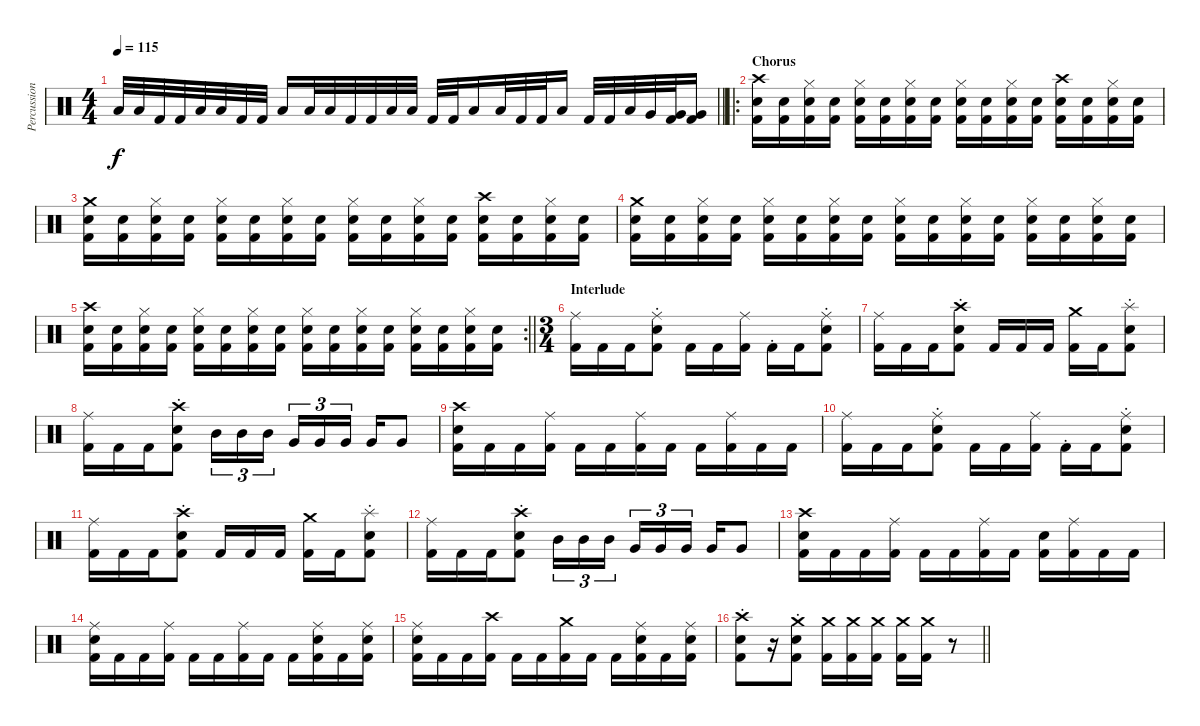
\track ("Percussion" "Percussion") {instrument percussion}
\staff {score}
\articulation defaults
\ts (4 4)
\tempo 115
\clef neutral
\barLineRight lightlight
\ks c "Low Tom (hit)".32{dy f} "Low Tom (hit)".32 "Kick (hit) 2".32 "Kick (hit) 2".32 "Low Tom (hit)".32 "Low Tom (hit)".32 "Kick (hit) 2".32 "Kick (hit) 2".32 "Low Tom (hit)".16 "Low Tom (hit)".32 "Low Tom (hit)".32 "Kick (hit) 2".32 "Kick (hit) 2".32 "Low Tom (hit)".32 "Low Tom (hit)".32 "Kick (hit) 2".32 "Kick (hit) 2".32 "Low Tom (hit)".16 "Low Tom (hit)".32 "Kick (hit) 2".32 "Kick (hit) 2".32 "Low Tom (hit)".16 "Kick (hit) 2".32 "Kick (hit) 2".32 "Low Tom (hit)".32 "Very Low Tom (hit)".32
("Very Low Tom (hit)" "Kick (hit) 2").32 ("Very Low Tom (hit)" "Kick (hit) 2").16 |
\ro
\section ("" "Chorus")
("Crash high (hit)" "Snare (hit) 2" "Kick (hit) 2").16 ("Snare (hit) 2" "Kick (hit) 2").16 ("Hi-Hat (closed)" "Snare (hit) 2" "Kick (hit) 2").16 ("Snare (hit) 2" "Kick (hit) 2").16 ("Hi-Hat (closed)" "Snare (hit) 2" "Kick (hit) 2").16 ("Snare (hit) 2" "Kick (hit) 2").16 ("Hi-Hat (closed)" "Snare (hit) 2" "Kick (hit) 2").16 ("Snare (hit) 2" "Kick (hit) 2").16 ("Hi-Hat (closed)" "Snare (hit) 2" "Kick (hit) 2").16 ("Snare (hit) 2" "Kick (hit) 2").16 ("Hi-Hat (closed)" "Snare (hit) 2" "Kick (hit) 2").16 ("Snare (hit) 2" "Kick (hit) 2").16 ("Crash high (hit)" "Snare (hit) 2" "Kick (hit) 2").16 ("Snare (hit) 2" "Kick (hit) 2").16 ("Hi-Hat (closed)" "Snare (hit) 2" "Kick (hit) 2").16 ("Snare (hit) 2" "Kick (hit) 2").16 |
("Crash medium (hit)" "Snare (hit) 2" "Kick (hit) 2").16 ("Snare (hit) 2" "Kick (hit) 2").16 ("Hi-Hat (closed)" "Snare (hit) 2" "Kick (hit) 2").16 ("Snare (hit) 2" "Kick (hit) 2").16 ("Hi-Hat (closed)" "Snare (hit) 2" "Kick (hit) 2").16 ("Snare (hit) 2" "Kick (hit) 2").16 ("Hi-Hat (closed)" "Snare (hit) 2" "Kick (hit) 2").16 ("Snare (hit) 2" "Kick (hit) 2").16 ("Hi-Hat (closed)" "Snare (hit) 2" "Kick (hit) 2").16 ("Snare (hit) 2" "Kick (hit) 2").16 ("Hi-Hat (closed)" "Snare (hit) 2" "Kick (hit) 2").16 ("Snare (hit) 2" "Kick (hit) 2").16 ("Crash high (hit)" "Snare (hit) 2" "Kick (hit) 2").16 ("Snare (hit) 2" "Kick (hit) 2").16 ("Hi-Hat (closed)" "Snare (hit) 2" "Kick (hit) 2").16 ("Snare (hit) 2" "Kick (hit) 2").16 |
("Crash medium (hit)" "Snare (hit) 2" "Kick (hit) 2").16 ("Snare (hit) 2" "Kick (hit) 2").16 ("Hi-Hat (closed)" "Snare (hit) 2" "Kick (hit) 2").16 ("Snare (hit) 2" "Kick (hit) 2").16 ("Hi-Hat (closed)" "Snare (hit) 2" "Kick (hit) 2").16 ("Snare (hit) 2" "Kick (hit) 2").16 ("Hi-Hat (closed)" "Snare (hit) 2" "Kick (hit) 2").16 ("Snare (hit) 2" "Kick (hit) 2").16 ("Hi-Hat (closed)" "Snare (hit) 2" "Kick (hit) 2").16 ("Snare (hit) 2" "Kick (hit) 2").16 ("Hi-Hat (closed)" "Snare (hit) 2" "Kick (hit) 2").16 ("Snare (hit) 2" "Kick (hit) 2").16 ("Hi-Hat (closed)" "Snare (hit) 2" "Kick (hit) 2").16 ("Snare (hit) 2" "Kick (hit) 2").16 ("Hi-Hat (closed)" "Snare (hit) 2" "Kick (hit) 2").16 ("Snare (hit) 2" "Kick (hit) 2").16 |
\rc 2
\barLineRight lightlight
("Crash high (hit)" "Snare (hit) 2" "Kick (hit) 2").16 ("Snare (hit) 2" "Kick (hit) 2").16 ("Hi-Hat (closed)" "Snare (hit) 2" "Kick (hit) 2").16 ("Snare (hit) 2" "Kick (hit) 2").16 ("Hi-Hat (closed)" "Snare (hit) 2" "Kick (hit) 2").16 ("Snare (hit) 2" "Kick (hit) 2").16 ("Hi-Hat (closed)" "Snare (hit) 2" "Kick (hit) 2").16 ("Snare (hit) 2" "Kick (hit) 2").16 ("Hi-Hat (closed)" "Snare (hit) 2" "Kick (hit) 2").16 ("Snare (hit) 2" "Kick (hit) 2").16 ("Hi-Hat (closed)" "Snare (hit) 2" "Kick (hit) 2").16 ("Snare (hit) 2" "Kick (hit) 2").16 ("Hi-Hat (closed)" "Snare (hit) 2" "Kick (hit) 2").16 ("Snare (hit) 2" "Kick (hit) 2").16 ("Hi-Hat (closed)" "Snare (hit) 2" "Kick (hit) 2").16 ("Snare (hit) 2" "Kick (hit) 2").16 |
\ts (3 4)
\section ("" "Interlude")
("Ride (middle)" "Kick (hit) 2").16 "Kick (hit) 2".16 "Kick (hit) 2".16 ("Ride (middle)" "Snare (hit) 2" "Kick (hit) 2"{st}).8 "Kick (hit) 2".16 "Kick (hit) 2".16 ("Ride (middle)" "Kick (hit) 2").16 "Kick (hit) 2"{st}.16 "Kick (hit) 2".16 ("Ride (middle)" "Snare (hit) 2" "Kick (hit) 2"{st}).8 |
("Ride (middle)" "Kick (hit) 2").16 "Kick (hit) 2".16 "Kick (hit) 2".16 ("Crash high (hit)" "Snare (hit) 2" "Kick (hit) 2"{st}).8 "Kick (hit) 2".16 "Kick (hit) 2".16 "Kick (hit) 2".16 ("Crash medium (hit)" "Kick (hit) 2").16 "Kick (hit) 2".16 ("Splash (hit)" "Snare (hit) 2" "Kick (hit) 2"{st}).8 |
("Ride (middle)" "Kick (hit) 2").16 "Kick (hit) 2".16 "Kick (hit) 2".16 ("Crash high (hit)"{st} "Snare (hit) 2" "Kick (hit) 2").8 "Mid Tom (hit)".16{tu (3 2)} "Mid Tom (hit)".16{tu (3 2)} "Mid Tom (hit)".16{tu (3 2) beam splitsecondary} "Very Low Tom (hit)".16{tu (3 2)} "Very Low Tom (hit)".16{tu (3 2)} "Very Low Tom (hit)".16{tu (3 2) beam splitsecondary} "Very Low Tom (hit)".16 "Very Low Tom (hit)".8 |
("Crash high (hit)" "Snare (hit) 2" "Kick (hit) 2").16 "Kick (hit) 2".16 "Kick (hit) 2".16 ("Ride (middle)" "Kick (hit) 2").16 "Kick (hit) 2".16 "Kick (hit) 2".16 ("Ride (middle)" "Kick (hit) 2").16 "Kick (hit) 2".16 "Kick (hit) 2".16 ("Ride (middle)" "Kick (hit) 2").16 "Kick (hit) 2".16 "Kick (hit) 2".16 |
("Ride (middle)" "Kick (hit) 2").16 "Kick (hit) 2".16 "Kick (hit) 2".16 ("Ride (middle)" "Snare (hit) 2" "Kick (hit) 2"{st}).8 "Kick (hit) 2".16 "Kick (hit) 2".16 ("Ride (middle)" "Kick (hit) 2").16 "Kick (hit) 2"{st}.16 "Kick (hit) 2".16 ("Ride (middle)" "Snare (hit) 2" "Kick (hit) 2"{st}).8 |
("Ride (middle)" "Kick (hit) 2").16 "Kick (hit) 2".16 "Kick (hit) 2".16 ("Crash high (hit)" "Snare (hit) 2" "Kick (hit) 2"{st}).8 "Kick (hit) 2".16 "Kick (hit) 2".16 "Kick (hit) 2".16 ("Crash medium (hit)" "Kick (hit) 2").16 "Kick (hit) 2".16 ("Splash (hit)" "Snare (hit) 2" "Kick (hit) 2"{st}).8 |
("Ride (middle)" "Kick (hit) 2").16 "Kick (hit) 2".16 "Kick (hit) 2".16 ("Crash high (hit)"{st} "Snare (hit) 2" "Kick (hit) 2").8 "Mid Tom (hit)".16{tu (3 2)} "Mid Tom (hit)".16{tu (3 2)} "Mid Tom (hit)".16{tu (3 2) beam splitsecondary} "Very Low Tom (hit)".16{tu (3 2)} "Very Low Tom (hit)".16{tu (3 2)} "Very Low Tom (hit)".16{tu (3 2) beam splitsecondary} "Very Low Tom (hit)".16 "Very Low Tom (hit)".8 |
("Crash high (hit)" "Snare (hit) 2" "Kick (hit) 2").16 "Kick (hit) 2".16 "Kick (hit) 2".16 ("Ride (middle)" "Kick (hit) 2").16 "Kick (hit) 2".16 "Kick (hit) 2".16 ("Ride (middle)" "Kick (hit) 2").16 "Kick (hit) 2".16 ("Snare (hit) 2" "Kick (hit) 2").16 ("Ride (middle)" "Kick (hit) 2").16 "Kick (hit) 2".16 "Kick (hit) 2".16 |
("Ride (middle)" "Snare (hit) 2" "Kick (hit) 2").16 "Kick (hit) 2".16 "Kick (hit) 2".16 ("Ride (middle)" "Kick (hit) 2").16 "Kick (hit) 2".16 "Kick (hit) 2".16 ("Ride (middle)" "Kick (hit) 2").16 "Kick (hit) 2".16 "Kick (hit) 2".16 ("Ride (middle)" "Snare (hit) 2" "Kick (hit) 2").16 "Kick (hit) 2".16 ("Ride (middle)" "Snare (hit) 2" "Kick (hit) 2").16 |
("Ride (middle)" "Snare (hit) 2" "Kick (hit) 2").16 "Kick (hit) 2".16 "Kick (hit) 2".16 ("Crash high (hit)" "Kick (hit) 2").16 "Kick (hit) 2".16 "Kick (hit) 2".16 ("Crash medium (hit)" "Kick (hit) 2").16 "Kick (hit) 2".16 "Kick (hit) 2".16 ("Ride (middle)" "Snare (hit) 2" "Kick (hit) 2").16 "Kick (hit) 2".16 ("Ride (middle)" "Snare (hit) 2" "Kick (hit) 2").16 |
\barLineRight lightlight
("Crash high (hit)" "Snare (hit) 2" "Kick (hit) 2"{st}).8 r.16 ("Crash medium (hit)" "Snare (hit) 2" "Kick (hit) 2"{st}).8 ("Crash medium (hit)" "Kick (hit) 2").16 ("Crash medium (hit)" "Kick (hit) 2").16 ("Crash medium (hit)" "Kick (hit) 2").16 ("Crash medium (hit)" "Kick (hit) 2").16 ("Crash medium (hit)" "Kick (hit) 2").16 r.8
